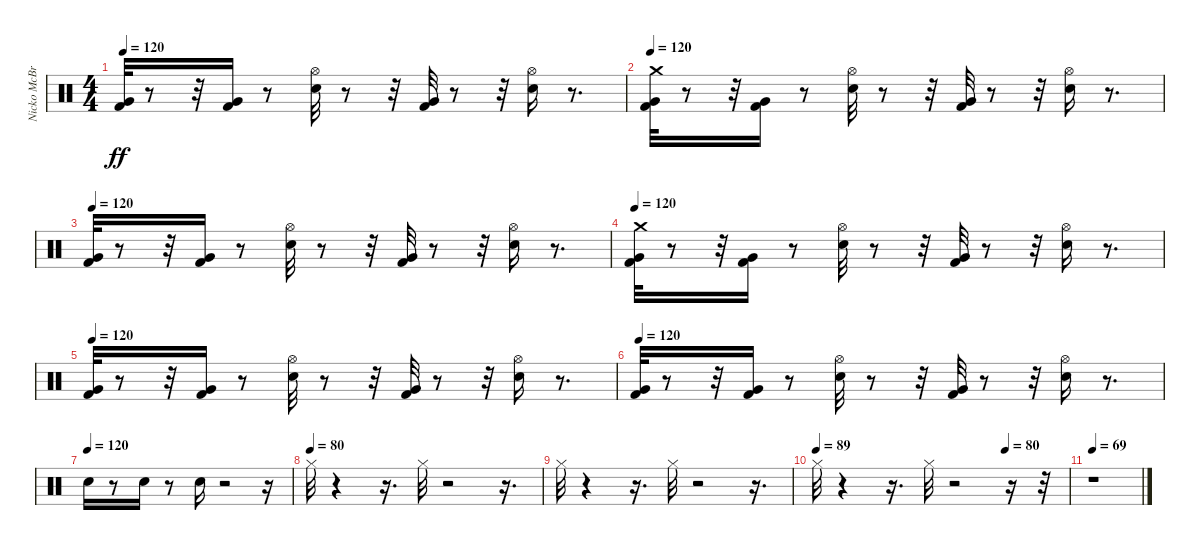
\track ("Nicko McBrain" "Nicko McBr") {instrument percussion}
\staff {score}
\articulation defaults
\ts (4 4)
\tempo 120
\clef neutral
\ks c
("Kick (hit) 2" "Very Low Tom (hit)").32{dy ff} r.8 r.32 ("Kick (hit) 2" "Very Low Tom (hit)").16 r.8 ("Electric Snare (hit)" "Hi-Hat (open)").32 r.8 r.32 ("Kick (hit) 2" "Very Low Tom (hit)").32 r.8 r.32 ("Electric Snare (hit)" "Hi-Hat (open)").16 r.8{d} |
\tempo 120
("Kick (hit) 2" "Very Low Tom (hit)" "Crash medium (hit)").32 r.8 r.32 ("Kick (hit) 2" "Very Low Tom (hit)").16 r.8 ("Electric Snare (hit)" "Hi-Hat (open)").32 r.8 r.32 ("Kick (hit) 2" "Very Low Tom (hit)").32 r.8 r.32 ("Electric Snare (hit)" "Hi-Hat (open)").16 r.8{d} |
\tempo 120
("Kick (hit) 2" "Very Low Tom (hit)").32 r.8 r.32 ("Kick (hit) 2" "Very Low Tom (hit)").16 r.8 ("Electric Snare (hit)" "Hi-Hat (open)").32 r.8 r.32 ("Kick (hit) 2" "Very Low Tom (hit)").32 r.8 r.32 ("Electric Snare (hit)" "Hi-Hat (open)").16 r.8{d} |
\tempo 120
("Kick (hit) 2" "Very Low Tom (hit)" "Crash medium (hit)").32 r.8 r.32 ("Kick (hit) 2" "Very Low Tom (hit)").16 r.8 ("Electric Snare (hit)" "Hi-Hat (open)").32 r.8 r.32 ("Kick (hit) 2" "Very Low Tom (hit)").32 r.8 r.32 ("Electric Snare (hit)" "Hi-Hat (open)").16 r.8{d} |
\tempo 120
("Kick (hit) 2" "Very Low Tom (hit)").32 r.8 r.32 ("Kick (hit) 2" "Very Low Tom (hit)").16 r.8 ("Electric Snare (hit)" "Hi-Hat (open)").32 r.8 r.32 ("Kick (hit) 2" "Very Low Tom (hit)").32 r.8 r.32 ("Electric Snare (hit)" "Hi-Hat (open)").16 r.8{d} |
\tempo 120
("Kick (hit) 2" "Very Low Tom (hit)").32 r.8 r.32 ("Kick (hit) 2" "Very Low Tom (hit)").16 r.8 ("Electric Snare (hit)" "Hi-Hat (open)").32 r.8 r.32 ("Kick (hit) 2" "Very Low Tom (hit)").32 r.8 r.32 ("Electric Snare (hit)" "Hi-Hat (open)").16 r.8{d} |
\tempo (120)
"Electric Snare (hit)".16 r.8 "Electric Snare (hit)".16 r.8 "Electric Snare (hit)".16 r.2 r.16 |
\tempo 104
\tempo (80)
"Hi-Hat (closed)".32 r.4 r.16{d} "Hi-Hat (closed)".32 r.2 r.16{d} |
"Hi-Hat (closed)".32 r.4 r.16{d} "Hi-Hat (closed)".32 r.2 r.16{d} |
\tempo 89
\tempo (80 0.75)
"Hi-Hat (closed)".32 r.4 r.16{d} "Hi-Hat (closed)".32 r.2 r.16 r.32 |
\tempo 69
r.1
